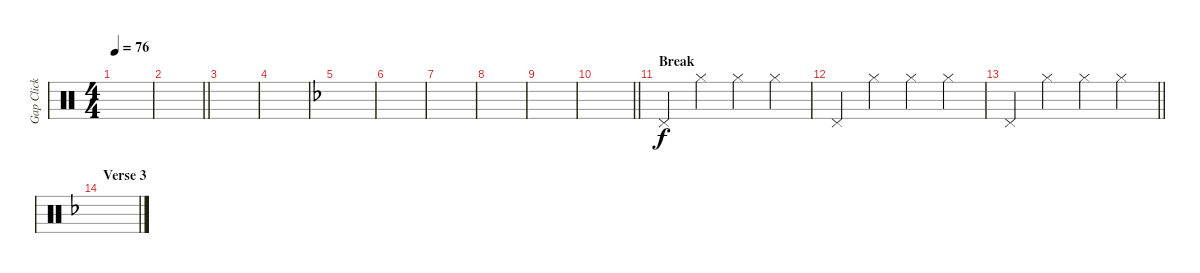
\track ("Gap Click" "Gap Click") {instrument percussion}
\staff {score}
\articulation defaults
\ts (4 4)
\tempo 76
\clef neutral
\ks c
|
\barLineRight lightlight
|
|
|
\ks f
|
|
|
|
|
\barLineRight lightlight
|
\section ("" "Break")
"Pedal Hi-Hat (hit)".4 "Hi-Hat (closed)".4 "Hi-Hat (closed)".4 "Hi-Hat (closed)".4 |
"Pedal Hi-Hat (hit)".4 "Hi-Hat (closed)".4 "Hi-Hat (closed)".4 "Hi-Hat (closed)".4 |
\barLineRight lightlight "Pedal Hi-Hat (hit)".4 "Hi-Hat (closed)".4 "Hi-Hat (closed)".4 "Hi-Hat (closed)".4
|
\section ("" "Verse 3")
